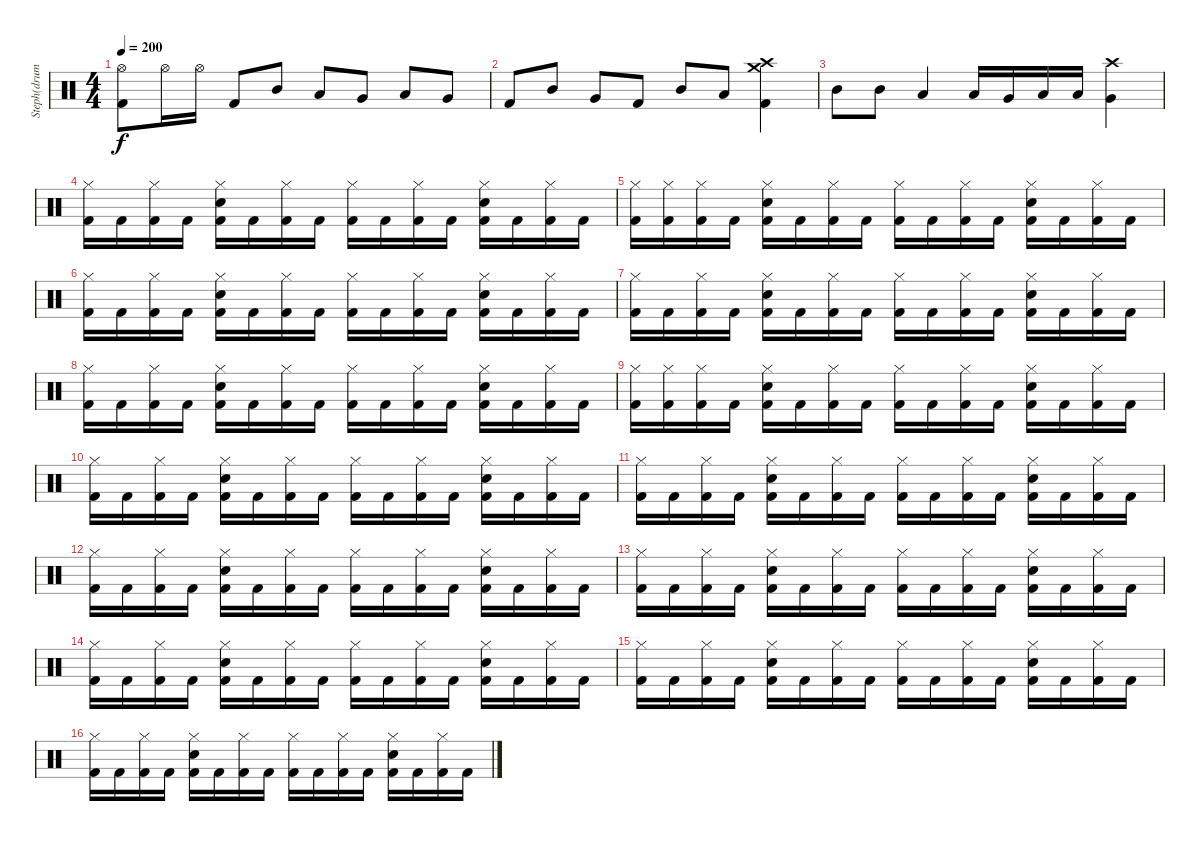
\track ("Steph(drums)" "Steph(drum") {instrument percussion}
\staff {score}
\articulation defaults
\ts (4 4)
\tempo 200
\clef neutral
\ks c
("Hi-Hat (open)" "Kick (hit) 2").8{dy f} "Hi-Hat (open)".16 "Hi-Hat (open)".16 "Kick (hit) 2".8 "Mid Tom (hit)".8 "Low Tom (hit)".8 "Very Low Tom (hit)".8 "Low Tom (hit)".8 "Very Low Tom (hit)".8 |
"Kick (hit) 2".8 "Mid Tom (hit)".8 "Very Low Tom (hit)".8 "Kick (hit) 2".8 "Mid Tom (hit)".8 "Low Tom (hit)".8 ("Crash high (hit)" "Crash medium (hit)" "Kick (hit) 2").4 |
"Mid Tom (hit)".8 "Mid Tom (hit)".8 "Low Tom (hit)".4 "Low Tom (hit)".16 "Very Low Tom (hit)".16 "Low Tom (hit)".16 "Low Tom (hit)".16 ("Crash high (hit)" "Very Low Tom (hit)").4 |
("Hi-Hat (closed)" "Kick (hit) 2").16 "Kick (hit) 2".16 ("Hi-Hat (closed)" "Kick (hit) 2").16 "Kick (hit) 2".16 ("Hi-Hat (closed)" "Electric Snare (hit)" "Kick (hit) 2").16 "Kick (hit) 2".16 ("Hi-Hat (closed)" "Kick (hit) 2").16 "Kick (hit) 2".16 ("Hi-Hat (closed)" "Kick (hit) 2").16 "Kick (hit) 2".16 ("Hi-Hat (closed)" "Kick (hit) 2").16 "Kick (hit) 2".16 ("Hi-Hat (closed)" "Electric Snare (hit)" "Kick (hit) 2").16 "Kick (hit) 2".16 ("Hi-Hat (closed)" "Kick (hit) 2").16 "Kick (hit) 2".16 |
("Hi-Hat (closed)" "Kick (hit) 2").16 ("Hi-Hat (closed)" "Kick (hit) 2").16 ("Hi-Hat (closed)" "Kick (hit) 2").16 "Kick (hit) 2".16 ("Hi-Hat (closed)" "Electric Snare (hit)" "Kick (hit) 2").16 "Kick (hit) 2".16 ("Hi-Hat (closed)" "Kick (hit) 2").16 "Kick (hit) 2".16 ("Hi-Hat (closed)" "Kick (hit) 2").16 "Kick (hit) 2".16 ("Hi-Hat (closed)" "Kick (hit) 2").16 "Kick (hit) 2".16 ("Hi-Hat (closed)" "Electric Snare (hit)" "Kick (hit) 2").16 "Kick (hit) 2".16 ("Hi-Hat (closed)" "Kick (hit) 2").16 "Kick (hit) 2".16 |
("Hi-Hat (closed)" "Kick (hit) 2").16 "Kick (hit) 2".16 ("Hi-Hat (closed)" "Kick (hit) 2").16 "Kick (hit) 2".16 ("Hi-Hat (closed)" "Electric Snare (hit)" "Kick (hit) 2").16 "Kick (hit) 2".16 ("Hi-Hat (closed)" "Kick (hit) 2").16 "Kick (hit) 2".16 ("Hi-Hat (closed)" "Kick (hit) 2").16 "Kick (hit) 2".16 ("Hi-Hat (closed)" "Kick (hit) 2").16 "Kick (hit) 2".16 ("Hi-Hat (closed)" "Electric Snare (hit)" "Kick (hit) 2").16 "Kick (hit) 2".16 ("Hi-Hat (closed)" "Kick (hit) 2").16 "Kick (hit) 2".16 |
("Hi-Hat (closed)" "Kick (hit) 2").16 "Kick (hit) 2".16 ("Hi-Hat (closed)" "Kick (hit) 2").16 "Kick (hit) 2".16 ("Hi-Hat (closed)" "Electric Snare (hit)" "Kick (hit) 2").16 "Kick (hit) 2".16 ("Hi-Hat (closed)" "Kick (hit) 2").16 "Kick (hit) 2".16 ("Hi-Hat (closed)" "Kick (hit) 2").16 "Kick (hit) 2".16 ("Hi-Hat (closed)" "Kick (hit) 2").16 "Kick (hit) 2".16 ("Hi-Hat (closed)" "Electric Snare (hit)" "Kick (hit) 2").16 "Kick (hit) 2".16 ("Hi-Hat (closed)" "Kick (hit) 2").16 "Kick (hit) 2".16 |
("Hi-Hat (closed)" "Kick (hit) 2").16 "Kick (hit) 2".16 ("Hi-Hat (closed)" "Kick (hit) 2").16 "Kick (hit) 2".16 ("Hi-Hat (closed)" "Electric Snare (hit)" "Kick (hit) 2").16 "Kick (hit) 2".16 ("Hi-Hat (closed)" "Kick (hit) 2").16 "Kick (hit) 2".16 ("Hi-Hat (closed)" "Kick (hit) 2").16 "Kick (hit) 2".16 ("Hi-Hat (closed)" "Kick (hit) 2").16 "Kick (hit) 2".16 ("Hi-Hat (closed)" "Electric Snare (hit)" "Kick (hit) 2").16 "Kick (hit) 2".16 ("Hi-Hat (closed)" "Kick (hit) 2").16 "Kick (hit) 2".16 |
("Hi-Hat (closed)" "Kick (hit) 2").16 ("Hi-Hat (closed)" "Kick (hit) 2").16 ("Hi-Hat (closed)" "Kick (hit) 2").16 "Kick (hit) 2".16 ("Hi-Hat (closed)" "Electric Snare (hit)" "Kick (hit) 2").16 "Kick (hit) 2".16 ("Hi-Hat (closed)" "Kick (hit) 2").16 "Kick (hit) 2".16 ("Hi-Hat (closed)" "Kick (hit) 2").16 "Kick (hit) 2".16 ("Hi-Hat (closed)" "Kick (hit) 2").16 "Kick (hit) 2".16 ("Hi-Hat (closed)" "Electric Snare (hit)" "Kick (hit) 2").16 "Kick (hit) 2".16 ("Hi-Hat (closed)" "Kick (hit) 2").16 "Kick (hit) 2".16 |
("Hi-Hat (closed)" "Kick (hit) 2").16 "Kick (hit) 2".16 ("Hi-Hat (closed)" "Kick (hit) 2").16 "Kick (hit) 2".16 ("Hi-Hat (closed)" "Electric Snare (hit)" "Kick (hit) 2").16 "Kick (hit) 2".16 ("Hi-Hat (closed)" "Kick (hit) 2").16 "Kick (hit) 2".16 ("Hi-Hat (closed)" "Kick (hit) 2").16 "Kick (hit) 2".16 ("Hi-Hat (closed)" "Kick (hit) 2").16 "Kick (hit) 2".16 ("Hi-Hat (closed)" "Electric Snare (hit)" "Kick (hit) 2").16 "Kick (hit) 2".16 ("Hi-Hat (closed)" "Kick (hit) 2").16 "Kick (hit) 2".16 |
("Hi-Hat (closed)" "Kick (hit) 2").16 "Kick (hit) 2".16 ("Hi-Hat (closed)" "Kick (hit) 2").16 "Kick (hit) 2".16 ("Hi-Hat (closed)" "Electric Snare (hit)" "Kick (hit) 2").16 "Kick (hit) 2".16 ("Hi-Hat (closed)" "Kick (hit) 2").16 "Kick (hit) 2".16 ("Hi-Hat (closed)" "Kick (hit) 2").16 "Kick (hit) 2".16 ("Hi-Hat (closed)" "Kick (hit) 2").16 "Kick (hit) 2".16 ("Hi-Hat (closed)" "Electric Snare (hit)" "Kick (hit) 2").16 "Kick (hit) 2".16 ("Hi-Hat (closed)" "Kick (hit) 2").16 "Kick (hit) 2".16 |
("Hi-Hat (closed)" "Kick (hit) 2").16 "Kick (hit) 2".16 ("Hi-Hat (closed)" "Kick (hit) 2").16 "Kick (hit) 2".16 ("Hi-Hat (closed)" "Electric Snare (hit)" "Kick (hit) 2").16 "Kick (hit) 2".16 ("Hi-Hat (closed)" "Kick (hit) 2").16 "Kick (hit) 2".16 ("Hi-Hat (closed)" "Kick (hit) 2").16 "Kick (hit) 2".16 ("Hi-Hat (closed)" "Kick (hit) 2").16 "Kick (hit) 2".16 ("Hi-Hat (closed)" "Electric Snare (hit)" "Kick (hit) 2").16 "Kick (hit) 2".16 ("Hi-Hat (closed)" "Kick (hit) 2").16 "Kick (hit) 2".16 |
("Hi-Hat (closed)" "Kick (hit) 2").16 "Kick (hit) 2".16 ("Hi-Hat (closed)" "Kick (hit) 2").16 "Kick (hit) 2".16 ("Hi-Hat (closed)" "Electric Snare (hit)" "Kick (hit) 2").16 "Kick (hit) 2".16 ("Hi-Hat (closed)" "Kick (hit) 2").16 "Kick (hit) 2".16 ("Hi-Hat (closed)" "Kick (hit) 2").16 "Kick (hit) 2".16 ("Hi-Hat (closed)" "Kick (hit) 2").16 "Kick (hit) 2".16 ("Hi-Hat (closed)" "Electric Snare (hit)" "Kick (hit) 2").16 "Kick (hit) 2".16 ("Hi-Hat (closed)" "Kick (hit) 2").16 "Kick (hit) 2".16 |
("Hi-Hat (closed)" "Kick (hit) 2").16 "Kick (hit) 2".16 ("Hi-Hat (closed)" "Kick (hit) 2").16 "Kick (hit) 2".16 ("Hi-Hat (closed)" "Electric Snare (hit)" "Kick (hit) 2").16 "Kick (hit) 2".16 ("Hi-Hat (closed)" "Kick (hit) 2").16 "Kick (hit) 2".16 ("Hi-Hat (closed)" "Kick (hit) 2").16 "Kick (hit) 2".16 ("Hi-Hat (closed)" "Kick (hit) 2").16 "Kick (hit) 2".16 ("Hi-Hat (closed)" "Electric Snare (hit)" "Kick (hit) 2").16 "Kick (hit) 2".16 ("Hi-Hat (closed)" "Kick (hit) 2").16 "Kick (hit) 2".16 |
("Hi-Hat (closed)" "Kick (hit) 2").16 "Kick (hit) 2".16 ("Hi-Hat (closed)" "Kick (hit) 2").16 "Kick (hit) 2".16 ("Hi-Hat (closed)" "Electric Snare (hit)" "Kick (hit) 2").16 "Kick (hit) 2".16 ("Hi-Hat (closed)" "Kick (hit) 2").16 "Kick (hit) 2".16 ("Hi-Hat (closed)" "Kick (hit) 2").16 "Kick (hit) 2".16 ("Hi-Hat (closed)" "Kick (hit) 2").16 "Kick (hit) 2".16 ("Hi-Hat (closed)" "Electric Snare (hit)" "Kick (hit) 2").16 "Kick (hit) 2".16 ("Hi-Hat (closed)" "Kick (hit) 2").16 "Kick (hit) 2".16 |
("Hi-Hat (closed)" "Kick (hit) 2").16 "Kick (hit) 2".16 ("Hi-Hat (closed)" "Kick (hit) 2").16 "Kick (hit) 2".16 ("Hi-Hat (closed)" "Electric Snare (hit)" "Kick (hit) 2").16 "Kick (hit) 2".16 ("Hi-Hat (closed)" "Kick (hit) 2").16 "Kick (hit) 2".16 ("Hi-Hat (closed)" "Kick (hit) 2").16 "Kick (hit) 2".16 ("Hi-Hat (closed)" "Kick (hit) 2").16 "Kick (hit) 2".16 ("Hi-Hat (closed)" "Electric Snare (hit)" "Kick (hit) 2").16 "Kick (hit) 2".16 ("Hi-Hat (closed)" "Kick (hit) 2").16 "Kick (hit) 2".16
